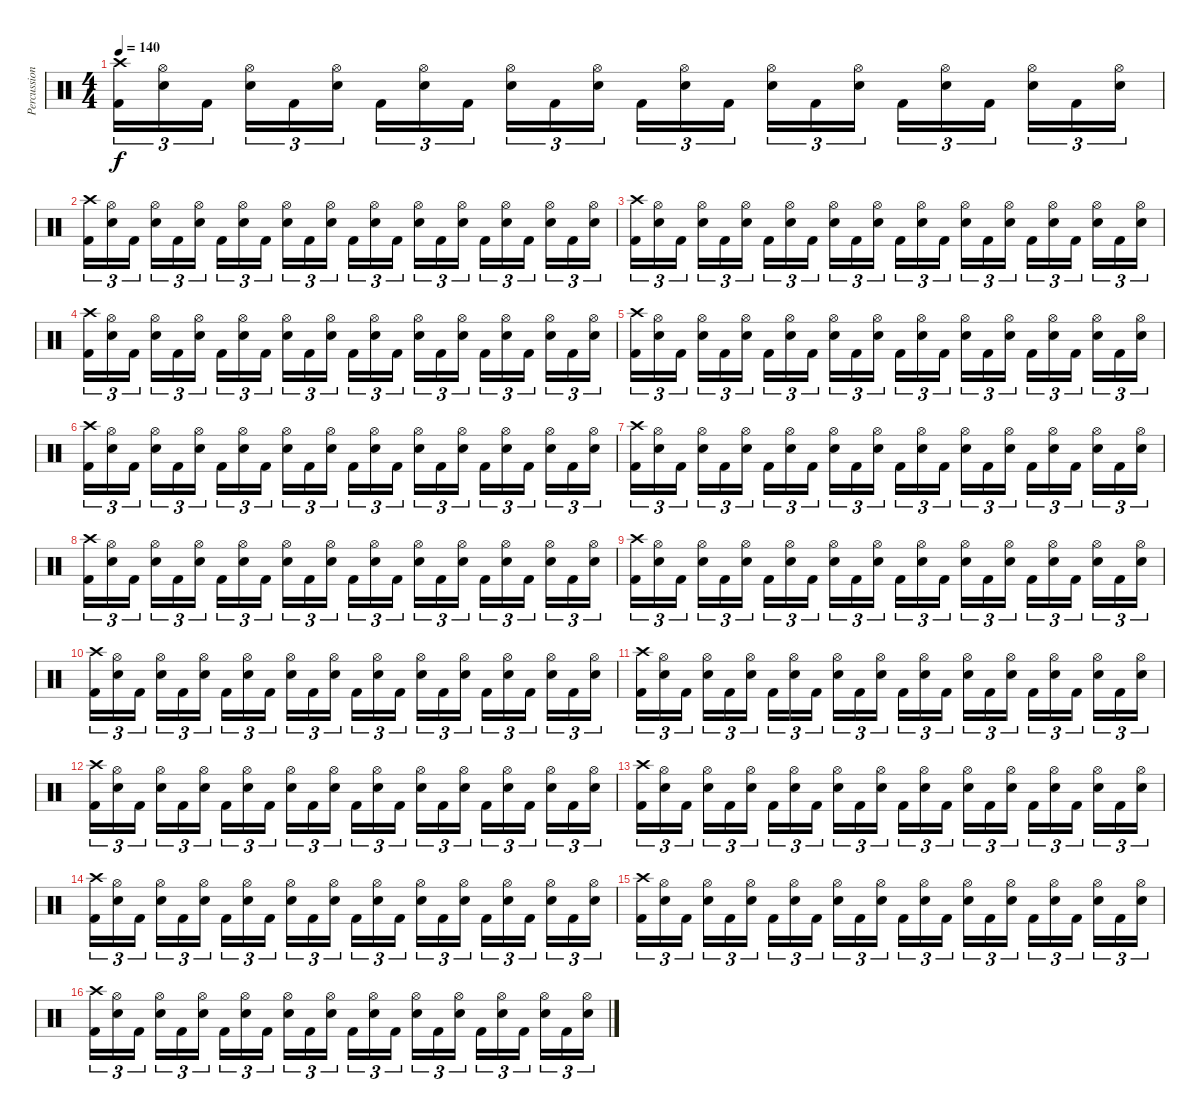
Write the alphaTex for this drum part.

\track ("Percussion" "Percussion") {instrument percussion}
\staff {score}
\articulation defaults
\ts (4 4)
\tempo 140
\clef neutral
\ks c
("Crash high (hit)" "Kick (hit) 2").16{tu (3 2) dy f} ("Hi-Hat (open)" "Snare (hit) 2").16{tu (3 2)} "Kick (hit) 2".16{tu (3 2)} ("Hi-Hat (open)" "Snare (hit) 2").16{tu (3 2)} "Kick (hit) 2".16{tu (3 2)} ("Hi-Hat (open)" "Snare (hit) 2").16{tu (3 2)} "Kick (hit) 2".16{tu (3 2)} ("Hi-Hat (open)" "Snare (hit) 2").16{tu (3 2)} "Kick (hit) 2".16{tu (3 2)} ("Hi-Hat (open)" "Snare (hit) 2").16{tu (3 2)} "Kick (hit) 2".16{tu (3 2)} ("Hi-Hat (open)" "Snare (hit) 2").16{tu (3 2)} "Kick (hit) 2".16{tu (3 2)} ("Hi-Hat (open)" "Snare (hit) 2").16{tu (3 2)} "Kick (hit) 2".16{tu (3 2)} ("Hi-Hat (open)" "Snare (hit) 2").16{tu (3 2)} "Kick (hit) 2".16{tu (3 2)} ("Hi-Hat (open)" "Snare (hit) 2").16{tu (3 2)} "Kick (hit) 2".16{tu (3 2)} ("Hi-Hat (open)" "Snare (hit) 2").16{tu (3 2)} "Kick (hit) 2".16{tu (3 2)} ("Hi-Hat (open)" "Snare (hit) 2").16{tu (3 2)} "Kick (hit) 2".16{tu (3 2)} ("Hi-Hat (open)" "Snare (hit) 2").16{tu (3 2)} |
("Crash high (hit)" "Kick (hit) 2").16{tu (3 2)} ("Hi-Hat (open)" "Snare (hit) 2").16{tu (3 2)} "Kick (hit) 2".16{tu (3 2)} ("Hi-Hat (open)" "Snare (hit) 2").16{tu (3 2)} "Kick (hit) 2".16{tu (3 2)} ("Hi-Hat (open)" "Snare (hit) 2").16{tu (3 2)} "Kick (hit) 2".16{tu (3 2)} ("Hi-Hat (open)" "Snare (hit) 2").16{tu (3 2)} "Kick (hit) 2".16{tu (3 2)} ("Hi-Hat (open)" "Snare (hit) 2").16{tu (3 2)} "Kick (hit) 2".16{tu (3 2)} ("Hi-Hat (open)" "Snare (hit) 2").16{tu (3 2)} "Kick (hit) 2".16{tu (3 2)} ("Hi-Hat (open)" "Snare (hit) 2").16{tu (3 2)} "Kick (hit) 2".16{tu (3 2)} ("Hi-Hat (open)" "Snare (hit) 2").16{tu (3 2)} "Kick (hit) 2".16{tu (3 2)} ("Hi-Hat (open)" "Snare (hit) 2").16{tu (3 2)} "Kick (hit) 2".16{tu (3 2)} ("Hi-Hat (open)" "Snare (hit) 2").16{tu (3 2)} "Kick (hit) 2".16{tu (3 2)} ("Hi-Hat (open)" "Snare (hit) 2").16{tu (3 2)} "Kick (hit) 2".16{tu (3 2)} ("Hi-Hat (open)" "Snare (hit) 2").16{tu (3 2)} |
("Crash high (hit)" "Kick (hit) 2").16{tu (3 2)} ("Hi-Hat (open)" "Snare (hit) 2").16{tu (3 2)} "Kick (hit) 2".16{tu (3 2)} ("Hi-Hat (open)" "Snare (hit) 2").16{tu (3 2)} "Kick (hit) 2".16{tu (3 2)} ("Hi-Hat (open)" "Snare (hit) 2").16{tu (3 2)} "Kick (hit) 2".16{tu (3 2)} ("Hi-Hat (open)" "Snare (hit) 2").16{tu (3 2)} "Kick (hit) 2".16{tu (3 2)} ("Hi-Hat (open)" "Snare (hit) 2").16{tu (3 2)} "Kick (hit) 2".16{tu (3 2)} ("Hi-Hat (open)" "Snare (hit) 2").16{tu (3 2)} "Kick (hit) 2".16{tu (3 2)} ("Hi-Hat (open)" "Snare (hit) 2").16{tu (3 2)} "Kick (hit) 2".16{tu (3 2)} ("Hi-Hat (open)" "Snare (hit) 2").16{tu (3 2)} "Kick (hit) 2".16{tu (3 2)} ("Hi-Hat (open)" "Snare (hit) 2").16{tu (3 2)} "Kick (hit) 2".16{tu (3 2)} ("Hi-Hat (open)" "Snare (hit) 2").16{tu (3 2)} "Kick (hit) 2".16{tu (3 2)} ("Hi-Hat (open)" "Snare (hit) 2").16{tu (3 2)} "Kick (hit) 2".16{tu (3 2)} ("Hi-Hat (open)" "Snare (hit) 2").16{tu (3 2)} |
("Crash high (hit)" "Kick (hit) 2").16{tu (3 2)} ("Hi-Hat (open)" "Snare (hit) 2").16{tu (3 2)} "Kick (hit) 2".16{tu (3 2)} ("Hi-Hat (open)" "Snare (hit) 2").16{tu (3 2)} "Kick (hit) 2".16{tu (3 2)} ("Hi-Hat (open)" "Snare (hit) 2").16{tu (3 2)} "Kick (hit) 2".16{tu (3 2)} ("Hi-Hat (open)" "Snare (hit) 2").16{tu (3 2)} "Kick (hit) 2".16{tu (3 2)} ("Hi-Hat (open)" "Snare (hit) 2").16{tu (3 2)} "Kick (hit) 2".16{tu (3 2)} ("Hi-Hat (open)" "Snare (hit) 2").16{tu (3 2)} "Kick (hit) 2".16{tu (3 2)} ("Hi-Hat (open)" "Snare (hit) 2").16{tu (3 2)} "Kick (hit) 2".16{tu (3 2)} ("Hi-Hat (open)" "Snare (hit) 2").16{tu (3 2)} "Kick (hit) 2".16{tu (3 2)} ("Hi-Hat (open)" "Snare (hit) 2").16{tu (3 2)} "Kick (hit) 2".16{tu (3 2)} ("Hi-Hat (open)" "Snare (hit) 2").16{tu (3 2)} "Kick (hit) 2".16{tu (3 2)} ("Hi-Hat (open)" "Snare (hit) 2").16{tu (3 2)} "Kick (hit) 2".16{tu (3 2)} ("Hi-Hat (open)" "Snare (hit) 2").16{tu (3 2)} |
("Crash high (hit)" "Kick (hit) 2").16{tu (3 2)} ("Hi-Hat (open)" "Snare (hit) 2").16{tu (3 2)} "Kick (hit) 2".16{tu (3 2)} ("Hi-Hat (open)" "Snare (hit) 2").16{tu (3 2)} "Kick (hit) 2".16{tu (3 2)} ("Hi-Hat (open)" "Snare (hit) 2").16{tu (3 2)} "Kick (hit) 2".16{tu (3 2)} ("Hi-Hat (open)" "Snare (hit) 2").16{tu (3 2)} "Kick (hit) 2".16{tu (3 2)} ("Hi-Hat (open)" "Snare (hit) 2").16{tu (3 2)} "Kick (hit) 2".16{tu (3 2)} ("Hi-Hat (open)" "Snare (hit) 2").16{tu (3 2)} "Kick (hit) 2".16{tu (3 2)} ("Hi-Hat (open)" "Snare (hit) 2").16{tu (3 2)} "Kick (hit) 2".16{tu (3 2)} ("Hi-Hat (open)" "Snare (hit) 2").16{tu (3 2)} "Kick (hit) 2".16{tu (3 2)} ("Hi-Hat (open)" "Snare (hit) 2").16{tu (3 2)} "Kick (hit) 2".16{tu (3 2)} ("Hi-Hat (open)" "Snare (hit) 2").16{tu (3 2)} "Kick (hit) 2".16{tu (3 2)} ("Hi-Hat (open)" "Snare (hit) 2").16{tu (3 2)} "Kick (hit) 2".16{tu (3 2)} ("Hi-Hat (open)" "Snare (hit) 2").16{tu (3 2)} |
("Crash high (hit)" "Kick (hit) 2").16{tu (3 2)} ("Hi-Hat (open)" "Snare (hit) 2").16{tu (3 2)} "Kick (hit) 2".16{tu (3 2)} ("Hi-Hat (open)" "Snare (hit) 2").16{tu (3 2)} "Kick (hit) 2".16{tu (3 2)} ("Hi-Hat (open)" "Snare (hit) 2").16{tu (3 2)} "Kick (hit) 2".16{tu (3 2)} ("Hi-Hat (open)" "Snare (hit) 2").16{tu (3 2)} "Kick (hit) 2".16{tu (3 2)} ("Hi-Hat (open)" "Snare (hit) 2").16{tu (3 2)} "Kick (hit) 2".16{tu (3 2)} ("Hi-Hat (open)" "Snare (hit) 2").16{tu (3 2)} "Kick (hit) 2".16{tu (3 2)} ("Hi-Hat (open)" "Snare (hit) 2").16{tu (3 2)} "Kick (hit) 2".16{tu (3 2)} ("Hi-Hat (open)" "Snare (hit) 2").16{tu (3 2)} "Kick (hit) 2".16{tu (3 2)} ("Hi-Hat (open)" "Snare (hit) 2").16{tu (3 2)} "Kick (hit) 2".16{tu (3 2)} ("Hi-Hat (open)" "Snare (hit) 2").16{tu (3 2)} "Kick (hit) 2".16{tu (3 2)} ("Hi-Hat (open)" "Snare (hit) 2").16{tu (3 2)} "Kick (hit) 2".16{tu (3 2)} ("Hi-Hat (open)" "Snare (hit) 2").16{tu (3 2)} |
("Crash high (hit)" "Kick (hit) 2").16{tu (3 2)} ("Hi-Hat (open)" "Snare (hit) 2").16{tu (3 2)} "Kick (hit) 2".16{tu (3 2)} ("Hi-Hat (open)" "Snare (hit) 2").16{tu (3 2)} "Kick (hit) 2".16{tu (3 2)} ("Hi-Hat (open)" "Snare (hit) 2").16{tu (3 2)} "Kick (hit) 2".16{tu (3 2)} ("Hi-Hat (open)" "Snare (hit) 2").16{tu (3 2)} "Kick (hit) 2".16{tu (3 2)} ("Hi-Hat (open)" "Snare (hit) 2").16{tu (3 2)} "Kick (hit) 2".16{tu (3 2)} ("Hi-Hat (open)" "Snare (hit) 2").16{tu (3 2)} "Kick (hit) 2".16{tu (3 2)} ("Hi-Hat (open)" "Snare (hit) 2").16{tu (3 2)} "Kick (hit) 2".16{tu (3 2)} ("Hi-Hat (open)" "Snare (hit) 2").16{tu (3 2)} "Kick (hit) 2".16{tu (3 2)} ("Hi-Hat (open)" "Snare (hit) 2").16{tu (3 2)} "Kick (hit) 2".16{tu (3 2)} ("Hi-Hat (open)" "Snare (hit) 2").16{tu (3 2)} "Kick (hit) 2".16{tu (3 2)} ("Hi-Hat (open)" "Snare (hit) 2").16{tu (3 2)} "Kick (hit) 2".16{tu (3 2)} ("Hi-Hat (open)" "Snare (hit) 2").16{tu (3 2)} |
("Crash high (hit)" "Kick (hit) 2").16{tu (3 2)} ("Hi-Hat (open)" "Snare (hit) 2").16{tu (3 2)} "Kick (hit) 2".16{tu (3 2)} ("Hi-Hat (open)" "Snare (hit) 2").16{tu (3 2)} "Kick (hit) 2".16{tu (3 2)} ("Hi-Hat (open)" "Snare (hit) 2").16{tu (3 2)} "Kick (hit) 2".16{tu (3 2)} ("Hi-Hat (open)" "Snare (hit) 2").16{tu (3 2)} "Kick (hit) 2".16{tu (3 2)} ("Hi-Hat (open)" "Snare (hit) 2").16{tu (3 2)} "Kick (hit) 2".16{tu (3 2)} ("Hi-Hat (open)" "Snare (hit) 2").16{tu (3 2)} "Kick (hit) 2".16{tu (3 2)} ("Hi-Hat (open)" "Snare (hit) 2").16{tu (3 2)} "Kick (hit) 2".16{tu (3 2)} ("Hi-Hat (open)" "Snare (hit) 2").16{tu (3 2)} "Kick (hit) 2".16{tu (3 2)} ("Hi-Hat (open)" "Snare (hit) 2").16{tu (3 2)} "Kick (hit) 2".16{tu (3 2)} ("Hi-Hat (open)" "Snare (hit) 2").16{tu (3 2)} "Kick (hit) 2".16{tu (3 2)} ("Hi-Hat (open)" "Snare (hit) 2").16{tu (3 2)} "Kick (hit) 2".16{tu (3 2)} ("Hi-Hat (open)" "Snare (hit) 2").16{tu (3 2)} |
("Crash high (hit)" "Kick (hit) 2").16{tu (3 2)} ("Hi-Hat (open)" "Snare (hit) 2").16{tu (3 2)} "Kick (hit) 2".16{tu (3 2)} ("Hi-Hat (open)" "Snare (hit) 2").16{tu (3 2)} "Kick (hit) 2".16{tu (3 2)} ("Hi-Hat (open)" "Snare (hit) 2").16{tu (3 2)} "Kick (hit) 2".16{tu (3 2)} ("Hi-Hat (open)" "Snare (hit) 2").16{tu (3 2)} "Kick (hit) 2".16{tu (3 2)} ("Hi-Hat (open)" "Snare (hit) 2").16{tu (3 2)} "Kick (hit) 2".16{tu (3 2)} ("Hi-Hat (open)" "Snare (hit) 2").16{tu (3 2)} "Kick (hit) 2".16{tu (3 2)} ("Hi-Hat (open)" "Snare (hit) 2").16{tu (3 2)} "Kick (hit) 2".16{tu (3 2)} ("Hi-Hat (open)" "Snare (hit) 2").16{tu (3 2)} "Kick (hit) 2".16{tu (3 2)} ("Hi-Hat (open)" "Snare (hit) 2").16{tu (3 2)} "Kick (hit) 2".16{tu (3 2)} ("Hi-Hat (open)" "Snare (hit) 2").16{tu (3 2)} "Kick (hit) 2".16{tu (3 2)} ("Hi-Hat (open)" "Snare (hit) 2").16{tu (3 2)} "Kick (hit) 2".16{tu (3 2)} ("Hi-Hat (open)" "Snare (hit) 2").16{tu (3 2)} |
("Crash high (hit)" "Kick (hit) 2").16{tu (3 2)} ("Hi-Hat (open)" "Snare (hit) 2").16{tu (3 2)} "Kick (hit) 2".16{tu (3 2)} ("Hi-Hat (open)" "Snare (hit) 2").16{tu (3 2)} "Kick (hit) 2".16{tu (3 2)} ("Hi-Hat (open)" "Snare (hit) 2").16{tu (3 2)} "Kick (hit) 2".16{tu (3 2)} ("Hi-Hat (open)" "Snare (hit) 2").16{tu (3 2)} "Kick (hit) 2".16{tu (3 2)} ("Hi-Hat (open)" "Snare (hit) 2").16{tu (3 2)} "Kick (hit) 2".16{tu (3 2)} ("Hi-Hat (open)" "Snare (hit) 2").16{tu (3 2)} "Kick (hit) 2".16{tu (3 2)} ("Hi-Hat (open)" "Snare (hit) 2").16{tu (3 2)} "Kick (hit) 2".16{tu (3 2)} ("Hi-Hat (open)" "Snare (hit) 2").16{tu (3 2)} "Kick (hit) 2".16{tu (3 2)} ("Hi-Hat (open)" "Snare (hit) 2").16{tu (3 2)} "Kick (hit) 2".16{tu (3 2)} ("Hi-Hat (open)" "Snare (hit) 2").16{tu (3 2)} "Kick (hit) 2".16{tu (3 2)} ("Hi-Hat (open)" "Snare (hit) 2").16{tu (3 2)} "Kick (hit) 2".16{tu (3 2)} ("Hi-Hat (open)" "Snare (hit) 2").16{tu (3 2)} |
("Crash high (hit)" "Kick (hit) 2").16{tu (3 2)} ("Hi-Hat (open)" "Snare (hit) 2").16{tu (3 2)} "Kick (hit) 2".16{tu (3 2)} ("Hi-Hat (open)" "Snare (hit) 2").16{tu (3 2)} "Kick (hit) 2".16{tu (3 2)} ("Hi-Hat (open)" "Snare (hit) 2").16{tu (3 2)} "Kick (hit) 2".16{tu (3 2)} ("Hi-Hat (open)" "Snare (hit) 2").16{tu (3 2)} "Kick (hit) 2".16{tu (3 2)} ("Hi-Hat (open)" "Snare (hit) 2").16{tu (3 2)} "Kick (hit) 2".16{tu (3 2)} ("Hi-Hat (open)" "Snare (hit) 2").16{tu (3 2)} "Kick (hit) 2".16{tu (3 2)} ("Hi-Hat (open)" "Snare (hit) 2").16{tu (3 2)} "Kick (hit) 2".16{tu (3 2)} ("Hi-Hat (open)" "Snare (hit) 2").16{tu (3 2)} "Kick (hit) 2".16{tu (3 2)} ("Hi-Hat (open)" "Snare (hit) 2").16{tu (3 2)} "Kick (hit) 2".16{tu (3 2)} ("Hi-Hat (open)" "Snare (hit) 2").16{tu (3 2)} "Kick (hit) 2".16{tu (3 2)} ("Hi-Hat (open)" "Snare (hit) 2").16{tu (3 2)} "Kick (hit) 2".16{tu (3 2)} ("Hi-Hat (open)" "Snare (hit) 2").16{tu (3 2)} |
("Crash high (hit)" "Kick (hit) 2").16{tu (3 2)} ("Hi-Hat (open)" "Snare (hit) 2").16{tu (3 2)} "Kick (hit) 2".16{tu (3 2)} ("Hi-Hat (open)" "Snare (hit) 2").16{tu (3 2)} "Kick (hit) 2".16{tu (3 2)} ("Hi-Hat (open)" "Snare (hit) 2").16{tu (3 2)} "Kick (hit) 2".16{tu (3 2)} ("Hi-Hat (open)" "Snare (hit) 2").16{tu (3 2)} "Kick (hit) 2".16{tu (3 2)} ("Hi-Hat (open)" "Snare (hit) 2").16{tu (3 2)} "Kick (hit) 2".16{tu (3 2)} ("Hi-Hat (open)" "Snare (hit) 2").16{tu (3 2)} "Kick (hit) 2".16{tu (3 2)} ("Hi-Hat (open)" "Snare (hit) 2").16{tu (3 2)} "Kick (hit) 2".16{tu (3 2)} ("Hi-Hat (open)" "Snare (hit) 2").16{tu (3 2)} "Kick (hit) 2".16{tu (3 2)} ("Hi-Hat (open)" "Snare (hit) 2").16{tu (3 2)} "Kick (hit) 2".16{tu (3 2)} ("Hi-Hat (open)" "Snare (hit) 2").16{tu (3 2)} "Kick (hit) 2".16{tu (3 2)} ("Hi-Hat (open)" "Snare (hit) 2").16{tu (3 2)} "Kick (hit) 2".16{tu (3 2)} ("Hi-Hat (open)" "Snare (hit) 2").16{tu (3 2)} |
("Crash high (hit)" "Kick (hit) 2").16{tu (3 2)} ("Hi-Hat (open)" "Snare (hit) 2").16{tu (3 2)} "Kick (hit) 2".16{tu (3 2)} ("Hi-Hat (open)" "Snare (hit) 2").16{tu (3 2)} "Kick (hit) 2".16{tu (3 2)} ("Hi-Hat (open)" "Snare (hit) 2").16{tu (3 2)} "Kick (hit) 2".16{tu (3 2)} ("Hi-Hat (open)" "Snare (hit) 2").16{tu (3 2)} "Kick (hit) 2".16{tu (3 2)} ("Hi-Hat (open)" "Snare (hit) 2").16{tu (3 2)} "Kick (hit) 2".16{tu (3 2)} ("Hi-Hat (open)" "Snare (hit) 2").16{tu (3 2)} "Kick (hit) 2".16{tu (3 2)} ("Hi-Hat (open)" "Snare (hit) 2").16{tu (3 2)} "Kick (hit) 2".16{tu (3 2)} ("Hi-Hat (open)" "Snare (hit) 2").16{tu (3 2)} "Kick (hit) 2".16{tu (3 2)} ("Hi-Hat (open)" "Snare (hit) 2").16{tu (3 2)} "Kick (hit) 2".16{tu (3 2)} ("Hi-Hat (open)" "Snare (hit) 2").16{tu (3 2)} "Kick (hit) 2".16{tu (3 2)} ("Hi-Hat (open)" "Snare (hit) 2").16{tu (3 2)} "Kick (hit) 2".16{tu (3 2)} ("Hi-Hat (open)" "Snare (hit) 2").16{tu (3 2)} |
("Crash high (hit)" "Kick (hit) 2").16{tu (3 2)} ("Hi-Hat (open)" "Snare (hit) 2").16{tu (3 2)} "Kick (hit) 2".16{tu (3 2)} ("Hi-Hat (open)" "Snare (hit) 2").16{tu (3 2)} "Kick (hit) 2".16{tu (3 2)} ("Hi-Hat (open)" "Snare (hit) 2").16{tu (3 2)} "Kick (hit) 2".16{tu (3 2)} ("Hi-Hat (open)" "Snare (hit) 2").16{tu (3 2)} "Kick (hit) 2".16{tu (3 2)} ("Hi-Hat (open)" "Snare (hit) 2").16{tu (3 2)} "Kick (hit) 2".16{tu (3 2)} ("Hi-Hat (open)" "Snare (hit) 2").16{tu (3 2)} "Kick (hit) 2".16{tu (3 2)} ("Hi-Hat (open)" "Snare (hit) 2").16{tu (3 2)} "Kick (hit) 2".16{tu (3 2)} ("Hi-Hat (open)" "Snare (hit) 2").16{tu (3 2)} "Kick (hit) 2".16{tu (3 2)} ("Hi-Hat (open)" "Snare (hit) 2").16{tu (3 2)} "Kick (hit) 2".16{tu (3 2)} ("Hi-Hat (open)" "Snare (hit) 2").16{tu (3 2)} "Kick (hit) 2".16{tu (3 2)} ("Hi-Hat (open)" "Snare (hit) 2").16{tu (3 2)} "Kick (hit) 2".16{tu (3 2)} ("Hi-Hat (open)" "Snare (hit) 2").16{tu (3 2)} |
("Crash high (hit)" "Kick (hit) 2").16{tu (3 2)} ("Hi-Hat (open)" "Snare (hit) 2").16{tu (3 2)} "Kick (hit) 2".16{tu (3 2)} ("Hi-Hat (open)" "Snare (hit) 2").16{tu (3 2)} "Kick (hit) 2".16{tu (3 2)} ("Hi-Hat (open)" "Snare (hit) 2").16{tu (3 2)} "Kick (hit) 2".16{tu (3 2)} ("Hi-Hat (open)" "Snare (hit) 2").16{tu (3 2)} "Kick (hit) 2".16{tu (3 2)} ("Hi-Hat (open)" "Snare (hit) 2").16{tu (3 2)} "Kick (hit) 2".16{tu (3 2)} ("Hi-Hat (open)" "Snare (hit) 2").16{tu (3 2)} "Kick (hit) 2".16{tu (3 2)} ("Hi-Hat (open)" "Snare (hit) 2").16{tu (3 2)} "Kick (hit) 2".16{tu (3 2)} ("Hi-Hat (open)" "Snare (hit) 2").16{tu (3 2)} "Kick (hit) 2".16{tu (3 2)} ("Hi-Hat (open)" "Snare (hit) 2").16{tu (3 2)} "Kick (hit) 2".16{tu (3 2)} ("Hi-Hat (open)" "Snare (hit) 2").16{tu (3 2)} "Kick (hit) 2".16{tu (3 2)} ("Hi-Hat (open)" "Snare (hit) 2").16{tu (3 2)} "Kick (hit) 2".16{tu (3 2)} ("Hi-Hat (open)" "Snare (hit) 2").16{tu (3 2)} |
("Crash high (hit)" "Kick (hit) 2").16{tu (3 2)} ("Hi-Hat (open)" "Snare (hit) 2").16{tu (3 2)} "Kick (hit) 2".16{tu (3 2)} ("Hi-Hat (open)" "Snare (hit) 2").16{tu (3 2)} "Kick (hit) 2".16{tu (3 2)} ("Hi-Hat (open)" "Snare (hit) 2").16{tu (3 2)} "Kick (hit) 2".16{tu (3 2)} ("Hi-Hat (open)" "Snare (hit) 2").16{tu (3 2)} "Kick (hit) 2".16{tu (3 2)} ("Hi-Hat (open)" "Snare (hit) 2").16{tu (3 2)} "Kick (hit) 2".16{tu (3 2)} ("Hi-Hat (open)" "Snare (hit) 2").16{tu (3 2)} "Kick (hit) 2".16{tu (3 2)} ("Hi-Hat (open)" "Snare (hit) 2").16{tu (3 2)} "Kick (hit) 2".16{tu (3 2)} ("Hi-Hat (open)" "Snare (hit) 2").16{tu (3 2)} "Kick (hit) 2".16{tu (3 2)} ("Hi-Hat (open)" "Snare (hit) 2").16{tu (3 2)} "Kick (hit) 2".16{tu (3 2)} ("Hi-Hat (open)" "Snare (hit) 2").16{tu (3 2)} "Kick (hit) 2".16{tu (3 2)} ("Hi-Hat (open)" "Snare (hit) 2").16{tu (3 2)} "Kick (hit) 2".16{tu (3 2)} ("Hi-Hat (open)" "Snare (hit) 2").16{tu (3 2)}
